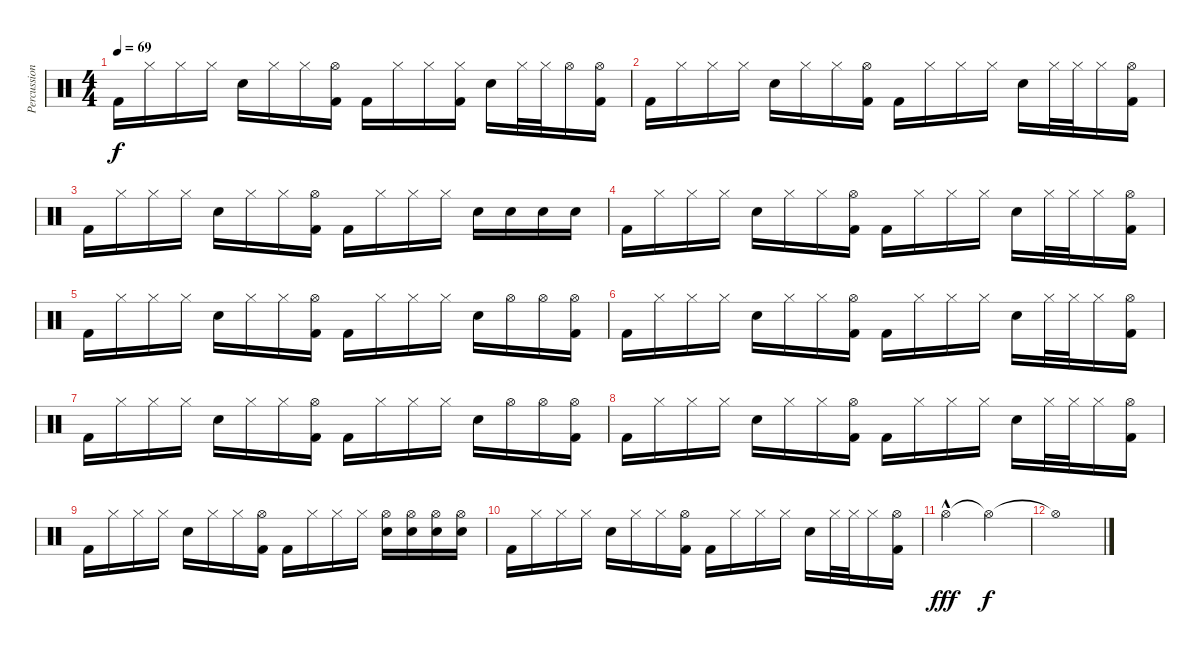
\track ("Percussions" "Percussion") {instrument percussion}
\staff {score}
\articulation defaults
\ts (4 4)
\tempo 69
\clef neutral
\ks c "Kick (hit) 2".16{dy f} "Hi-Hat (closed)".16 "Hi-Hat (closed)".16 "Hi-Hat (closed)".16 "Electric Snare (hit)".16 "Hi-Hat (closed)".16 "Hi-Hat (closed)".16
("Hi-Hat (open)" "Kick (hit) 2").16 "Kick (hit) 2".16 "Hi-Hat (closed)".16 "Hi-Hat (closed)".16 ("Hi-Hat (closed)" "Kick (hit) 2").16 "Electric Snare (hit)".16 "Hi-Hat (closed)".32 "Hi-Hat (closed)".32 "Hi-Hat (open)".16 ("Hi-Hat (open)" "Kick (hit) 2").16 |
"Kick (hit) 2".16 "Hi-Hat (closed)".16 "Hi-Hat (closed)".16 "Hi-Hat (closed)".16 "Electric Snare (hit)".16 "Hi-Hat (closed)".16 "Hi-Hat (closed)".16 ("Hi-Hat (open)" "Kick (hit) 2").16 "Kick (hit) 2".16 "Hi-Hat (closed)".16 "Hi-Hat (closed)".16 "Hi-Hat (closed)".16 "Electric Snare (hit)".16 "Hi-Hat (closed)".32 "Hi-Hat (closed)".32 "Hi-Hat (closed)".16 ("Hi-Hat (open)" "Kick (hit) 2").16 |
"Kick (hit) 2".16 "Hi-Hat (closed)".16 "Hi-Hat (closed)".16 "Hi-Hat (closed)".16 "Electric Snare (hit)".16 "Hi-Hat (closed)".16 "Hi-Hat (closed)".16 ("Hi-Hat (open)" "Kick (hit) 2").16 "Kick (hit) 2".16 "Hi-Hat (closed)".16 "Hi-Hat (closed)".16 "Hi-Hat (closed)".16 "Electric Snare (hit)".16 "Electric Snare (hit)".16 "Electric Snare (hit)".16 "Electric Snare (hit)".16 |
"Kick (hit) 2".16 "Hi-Hat (closed)".16 "Hi-Hat (closed)".16 "Hi-Hat (closed)".16 "Electric Snare (hit)".16 "Hi-Hat (closed)".16 "Hi-Hat (closed)".16 ("Hi-Hat (open)" "Kick (hit) 2").16 "Kick (hit) 2".16 "Hi-Hat (closed)".16 "Hi-Hat (closed)".16 "Hi-Hat (closed)".16 "Electric Snare (hit)".16 "Hi-Hat (closed)".32 "Hi-Hat (closed)".32 "Hi-Hat (closed)".16 ("Hi-Hat (open)" "Kick (hit) 2").16 |
"Kick (hit) 2".16 "Hi-Hat (closed)".16 "Hi-Hat (closed)".16 "Hi-Hat (closed)".16 "Electric Snare (hit)".16 "Hi-Hat (closed)".16 "Hi-Hat (closed)".16 ("Hi-Hat (open)" "Kick (hit) 2").16 "Kick (hit) 2".16 "Hi-Hat (closed)".16 "Hi-Hat (closed)".16 "Hi-Hat (closed)".16 "Electric Snare (hit)".16 "Hi-Hat (open)".16 "Hi-Hat (open)".16 ("Hi-Hat (open)" "Kick (hit) 2").16 |
"Kick (hit) 2".16 "Hi-Hat (closed)".16 "Hi-Hat (closed)".16 "Hi-Hat (closed)".16 "Electric Snare (hit)".16 "Hi-Hat (closed)".16 "Hi-Hat (closed)".16 ("Hi-Hat (open)" "Kick (hit) 2").16 "Kick (hit) 2".16 "Hi-Hat (closed)".16 "Hi-Hat (closed)".16 "Hi-Hat (closed)".16 "Electric Snare (hit)".16 "Hi-Hat (closed)".32 "Hi-Hat (closed)".32 "Hi-Hat (closed)".16 ("Hi-Hat (open)" "Kick (hit) 2").16 |
"Kick (hit) 2".16 "Hi-Hat (closed)".16 "Hi-Hat (closed)".16 "Hi-Hat (closed)".16 "Electric Snare (hit)".16 "Hi-Hat (closed)".16 "Hi-Hat (closed)".16 ("Hi-Hat (open)" "Kick (hit) 2").16 "Kick (hit) 2".16 "Hi-Hat (closed)".16 "Hi-Hat (closed)".16 "Hi-Hat (closed)".16 "Electric Snare (hit)".16 "Hi-Hat (open)".16 "Hi-Hat (open)".16 ("Hi-Hat (open)" "Kick (hit) 2").16 |
"Kick (hit) 2".16 "Hi-Hat (closed)".16 "Hi-Hat (closed)".16 "Hi-Hat (closed)".16 "Electric Snare (hit)".16 "Hi-Hat (closed)".16 "Hi-Hat (closed)".16 ("Hi-Hat (open)" "Kick (hit) 2").16 "Kick (hit) 2".16 "Hi-Hat (closed)".16 "Hi-Hat (closed)".16 "Hi-Hat (closed)".16 "Electric Snare (hit)".16 "Hi-Hat (closed)".32 "Hi-Hat (closed)".32 "Hi-Hat (closed)".16 ("Hi-Hat (open)" "Kick (hit) 2").16 |
"Kick (hit) 2".16 "Hi-Hat (closed)".16 "Hi-Hat (closed)".16 "Hi-Hat (closed)".16 "Electric Snare (hit)".16 "Hi-Hat (closed)".16 "Hi-Hat (closed)".16 ("Hi-Hat (open)" "Kick (hit) 2").16 "Kick (hit) 2".16 "Hi-Hat (closed)".16 "Hi-Hat (closed)".16 "Hi-Hat (closed)".16 ("Hi-Hat (open)" "Electric Snare (hit)").16 ("Hi-Hat (open)" "Electric Snare (hit)").16 ("Hi-Hat (open)" "Electric Snare (hit)").16 ("Hi-Hat (open)" "Electric Snare (hit)").16 |
"Kick (hit) 2".16 "Hi-Hat (closed)".16 "Hi-Hat (closed)".16 "Hi-Hat (closed)".16 "Electric Snare (hit)".16 "Hi-Hat (closed)".16 "Hi-Hat (closed)".16 ("Hi-Hat (open)" "Kick (hit) 2").16 "Kick (hit) 2".16 "Hi-Hat (closed)".16 "Hi-Hat (closed)".16 "Hi-Hat (closed)".16 "Electric Snare (hit)".16 "Hi-Hat (closed)".32 "Hi-Hat (closed)".32 "Hi-Hat (closed)".16 ("Hi-Hat (open)" "Kick (hit) 2").16 |
"Hi-Hat (open)"{hac}.2{dy fff} "Hi-Hat (open)"{t}.2{dy f} |
"Hi-Hat (open)"{t}.1
